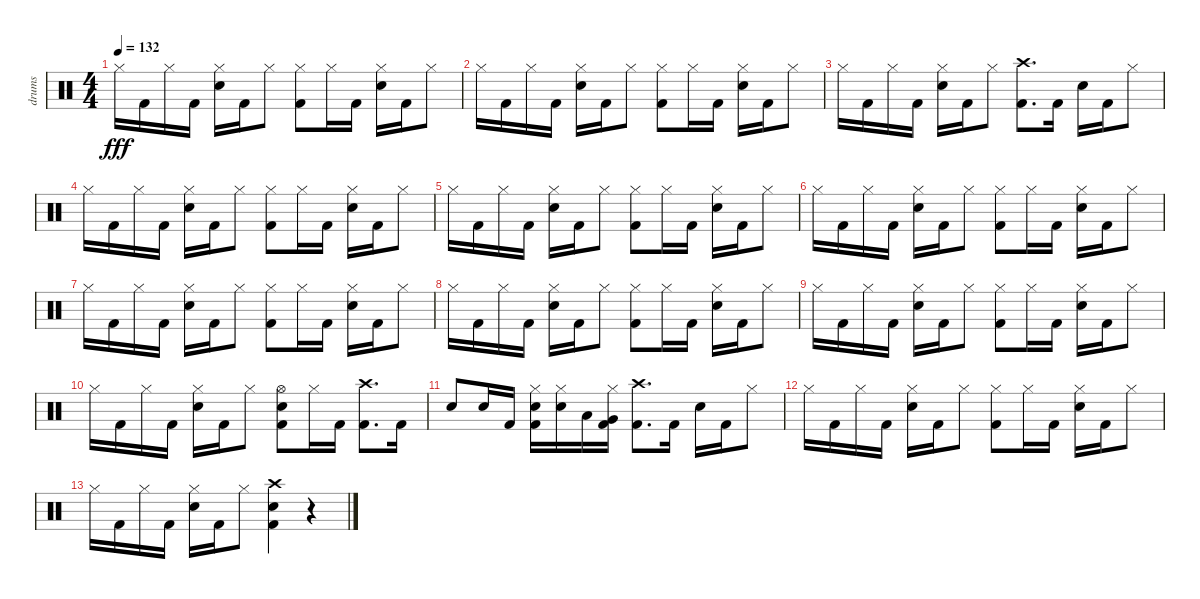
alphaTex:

\track ("drums" "drums") {instrument percussion}
\staff {score}
\articulation defaults
\ts (4 4)
\tempo 132
\clef neutral
\ks c "Hi-Hat (closed)".16{dy fff} "Kick (hit) 2".16 "Hi-Hat (closed)".16 "Kick (hit) 2".16
("Snare (hit) 2" "Hi-Hat (closed)").16 "Kick (hit) 2".16 "Hi-Hat (closed)".8 ("Kick (hit) 2" "Hi-Hat (closed)").8 "Hi-Hat (closed)".16 "Kick (hit) 2".16 ("Snare (hit) 2" "Hi-Hat (closed)").16 "Kick (hit) 2".16 "Hi-Hat (closed)".8 |
"Hi-Hat (closed)".16 "Kick (hit) 2".16 "Hi-Hat (closed)".16 "Kick (hit) 2".16 ("Snare (hit) 2" "Hi-Hat (closed)").16 "Kick (hit) 2".16 "Hi-Hat (closed)".8 ("Kick (hit) 2" "Hi-Hat (closed)").8 "Hi-Hat (closed)".16 "Kick (hit) 2".16 ("Snare (hit) 2" "Hi-Hat (closed)").16 "Kick (hit) 2".16 "Hi-Hat (closed)".8 |
"Hi-Hat (closed)".16 "Kick (hit) 2".16 "Hi-Hat (closed)".16 "Kick (hit) 2".16 ("Snare (hit) 2" "Hi-Hat (closed)").16 "Kick (hit) 2".16 "Hi-Hat (closed)".8 ("Kick (hit) 2" "Crash high (hit)").8{d} "Kick (hit) 2".16 "Snare (hit) 2".16 "Kick (hit) 2".16 "Hi-Hat (closed)".8 |
"Hi-Hat (closed)".16 "Kick (hit) 2".16 "Hi-Hat (closed)".16 "Kick (hit) 2".16 ("Snare (hit) 2" "Hi-Hat (closed)").16 "Kick (hit) 2".16 "Hi-Hat (closed)".8 ("Kick (hit) 2" "Hi-Hat (closed)").8 "Hi-Hat (closed)".16 "Kick (hit) 2".16 ("Snare (hit) 2" "Hi-Hat (closed)").16 "Kick (hit) 2".16 "Hi-Hat (closed)".8 |
"Hi-Hat (closed)".16 "Kick (hit) 2".16 "Hi-Hat (closed)".16 "Kick (hit) 2".16 ("Snare (hit) 2" "Hi-Hat (closed)").16 "Kick (hit) 2".16 "Hi-Hat (closed)".8 ("Kick (hit) 2" "Hi-Hat (closed)").8 "Hi-Hat (closed)".16 "Kick (hit) 2".16 ("Snare (hit) 2" "Hi-Hat (closed)").16 "Kick (hit) 2".16 "Hi-Hat (closed)".8 |
"Hi-Hat (closed)".16 "Kick (hit) 2".16 "Hi-Hat (closed)".16 "Kick (hit) 2".16 ("Snare (hit) 2" "Hi-Hat (closed)").16 "Kick (hit) 2".16 "Hi-Hat (closed)".8 ("Kick (hit) 2" "Hi-Hat (closed)").8 "Hi-Hat (closed)".16 "Kick (hit) 2".16 ("Snare (hit) 2" "Hi-Hat (closed)").16 "Kick (hit) 2".16 "Hi-Hat (closed)".8 |
"Hi-Hat (closed)".16 "Kick (hit) 2".16 "Hi-Hat (closed)".16 "Kick (hit) 2".16 ("Snare (hit) 2" "Hi-Hat (closed)").16 "Kick (hit) 2".16 "Hi-Hat (closed)".8 ("Kick (hit) 2" "Hi-Hat (closed)").8 "Hi-Hat (closed)".16 "Kick (hit) 2".16 ("Snare (hit) 2" "Hi-Hat (closed)").16 "Kick (hit) 2".16 "Hi-Hat (closed)".8 |
"Hi-Hat (closed)".16 "Kick (hit) 2".16 "Hi-Hat (closed)".16 "Kick (hit) 2".16 ("Snare (hit) 2" "Hi-Hat (closed)").16 "Kick (hit) 2".16 "Hi-Hat (closed)".8 ("Kick (hit) 2" "Hi-Hat (closed)").8 "Hi-Hat (closed)".16 "Kick (hit) 2".16 ("Snare (hit) 2" "Hi-Hat (closed)").16 "Kick (hit) 2".16 "Hi-Hat (closed)".8 |
"Hi-Hat (closed)".16 "Kick (hit) 2".16 "Hi-Hat (closed)".16 "Kick (hit) 2".16 ("Snare (hit) 2" "Hi-Hat (closed)").16 "Kick (hit) 2".16 "Hi-Hat (closed)".8 ("Kick (hit) 2" "Hi-Hat (closed)").8 "Hi-Hat (closed)".16 "Kick (hit) 2".16 ("Snare (hit) 2" "Hi-Hat (closed)").16 "Kick (hit) 2".16 "Hi-Hat (closed)".8 |
"Hi-Hat (closed)".16 "Kick (hit) 2".16 "Hi-Hat (closed)".16 "Kick (hit) 2".16 ("Snare (hit) 2" "Hi-Hat (closed)").16 "Kick (hit) 2".16 "Hi-Hat (closed)".8 ("Kick (hit) 2" "Snare (hit) 2" "Hi-Hat (open)").8 "Hi-Hat (closed)".16 "Kick (hit) 2".16 ("Kick (hit) 2" "Crash high (hit)").8{d} "Kick (hit) 2".16 |
"Snare (hit) 2".8 "Snare (hit) 2".16 "Kick (hit) 2".16 ("Kick (hit) 2" "Snare (hit) 2" "Hi-Hat (closed)").16 ("Snare (hit) 2" "Hi-Hat (closed)").16 "Low Tom (hit)".16 ("Kick (hit) 2" "Very Low Tom (hit)" "Hi-Hat (closed)").16 ("Kick (hit) 2" "Crash high (hit)").8{d} "Kick (hit) 2".16 "Snare (hit) 2".16 "Kick (hit) 2".16 "Hi-Hat (closed)".8 |
"Hi-Hat (closed)".16 "Kick (hit) 2".16 "Hi-Hat (closed)".16 "Kick (hit) 2".16 ("Snare (hit) 2" "Hi-Hat (closed)").16 "Kick (hit) 2".16 "Hi-Hat (closed)".8 ("Kick (hit) 2" "Hi-Hat (closed)").8 "Hi-Hat (closed)".16 "Kick (hit) 2".16 ("Snare (hit) 2" "Hi-Hat (closed)").16 "Kick (hit) 2".16 "Hi-Hat (closed)".8 |
"Hi-Hat (closed)".16 "Kick (hit) 2".16 "Hi-Hat (closed)".16 "Kick (hit) 2".16 ("Snare (hit) 2" "Hi-Hat (closed)").16 "Kick (hit) 2".16 "Hi-Hat (closed)".8 ("Kick (hit) 2" "Snare (hit) 2" "Crash high (hit)").4 r.4
